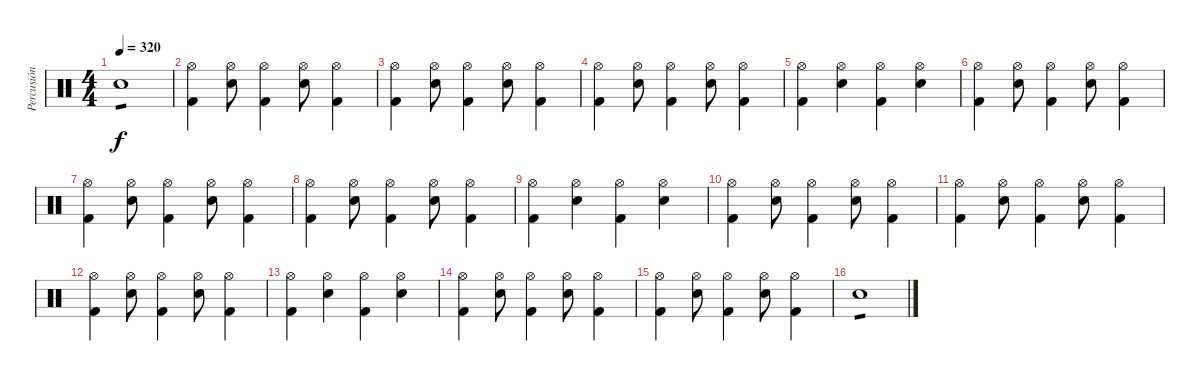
\track ("Percusión" "Percusión") {instrument percussion}
\staff {score}
\articulation defaults
\ts (4 4)
\tempo 320
\clef neutral
\ks c "Electric Snare (hit)".1{tp 1 dy f}
|
("Hi-Hat (open)" "Kick (hit) 2").4 ("Hi-Hat (open)" "Electric Snare (hit)").8 ("Hi-Hat (open)" "Kick (hit) 2").4 ("Hi-Hat (open)" "Electric Snare (hit)").8 ("Hi-Hat (open)" "Kick (hit) 2").4 |
("Hi-Hat (open)" "Kick (hit) 2").4 ("Hi-Hat (open)" "Electric Snare (hit)").8 ("Hi-Hat (open)" "Kick (hit) 2").4 ("Hi-Hat (open)" "Electric Snare (hit)").8 ("Hi-Hat (open)" "Kick (hit) 2").4 |
("Hi-Hat (open)" "Kick (hit) 2").4 ("Hi-Hat (open)" "Electric Snare (hit)").8 ("Hi-Hat (open)" "Kick (hit) 2").4 ("Hi-Hat (open)" "Electric Snare (hit)").8 ("Hi-Hat (open)" "Kick (hit) 2").4 |
("Hi-Hat (open)" "Kick (hit) 2").4 ("Hi-Hat (open)" "Electric Snare (hit)").4 ("Hi-Hat (open)" "Kick (hit) 2").4 ("Hi-Hat (open)" "Electric Snare (hit)").4 |
("Hi-Hat (open)" "Kick (hit) 2").4 ("Hi-Hat (open)" "Electric Snare (hit)").8 ("Hi-Hat (open)" "Kick (hit) 2").4 ("Hi-Hat (open)" "Electric Snare (hit)").8 ("Hi-Hat (open)" "Kick (hit) 2").4 |
("Hi-Hat (open)" "Kick (hit) 2").4 ("Hi-Hat (open)" "Electric Snare (hit)").8 ("Hi-Hat (open)" "Kick (hit) 2").4 ("Hi-Hat (open)" "Electric Snare (hit)").8 ("Hi-Hat (open)" "Kick (hit) 2").4 |
("Hi-Hat (open)" "Kick (hit) 2").4 ("Hi-Hat (open)" "Electric Snare (hit)").8 ("Hi-Hat (open)" "Kick (hit) 2").4 ("Hi-Hat (open)" "Electric Snare (hit)").8 ("Hi-Hat (open)" "Kick (hit) 2").4 |
("Hi-Hat (open)" "Kick (hit) 2").4 ("Hi-Hat (open)" "Electric Snare (hit)").4 ("Hi-Hat (open)" "Kick (hit) 2").4 ("Hi-Hat (open)" "Electric Snare (hit)").4 |
("Hi-Hat (open)" "Kick (hit) 2").4 ("Hi-Hat (open)" "Electric Snare (hit)").8 ("Hi-Hat (open)" "Kick (hit) 2").4 ("Hi-Hat (open)" "Electric Snare (hit)").8 ("Hi-Hat (open)" "Kick (hit) 2").4 |
("Hi-Hat (open)" "Kick (hit) 2").4 ("Hi-Hat (open)" "Electric Snare (hit)").8 ("Hi-Hat (open)" "Kick (hit) 2").4 ("Hi-Hat (open)" "Electric Snare (hit)").8 ("Hi-Hat (open)" "Kick (hit) 2").4 |
("Hi-Hat (open)" "Kick (hit) 2").4 ("Hi-Hat (open)" "Electric Snare (hit)").8 ("Hi-Hat (open)" "Kick (hit) 2").4 ("Hi-Hat (open)" "Electric Snare (hit)").8 ("Hi-Hat (open)" "Kick (hit) 2").4 |
("Hi-Hat (open)" "Kick (hit) 2").4 ("Hi-Hat (open)" "Electric Snare (hit)").4 ("Hi-Hat (open)" "Kick (hit) 2").4 ("Hi-Hat (open)" "Electric Snare (hit)").4 |
("Hi-Hat (open)" "Kick (hit) 2").4 ("Hi-Hat (open)" "Electric Snare (hit)").8 ("Hi-Hat (open)" "Kick (hit) 2").4 ("Hi-Hat (open)" "Electric Snare (hit)").8 ("Hi-Hat (open)" "Kick (hit) 2").4 |
("Hi-Hat (open)" "Kick (hit) 2").4 ("Hi-Hat (open)" "Electric Snare (hit)").8 ("Hi-Hat (open)" "Kick (hit) 2").4 ("Hi-Hat (open)" "Electric Snare (hit)").8 ("Hi-Hat (open)" "Kick (hit) 2").4 |
"Electric Snare (hit)".1{tp 1}
